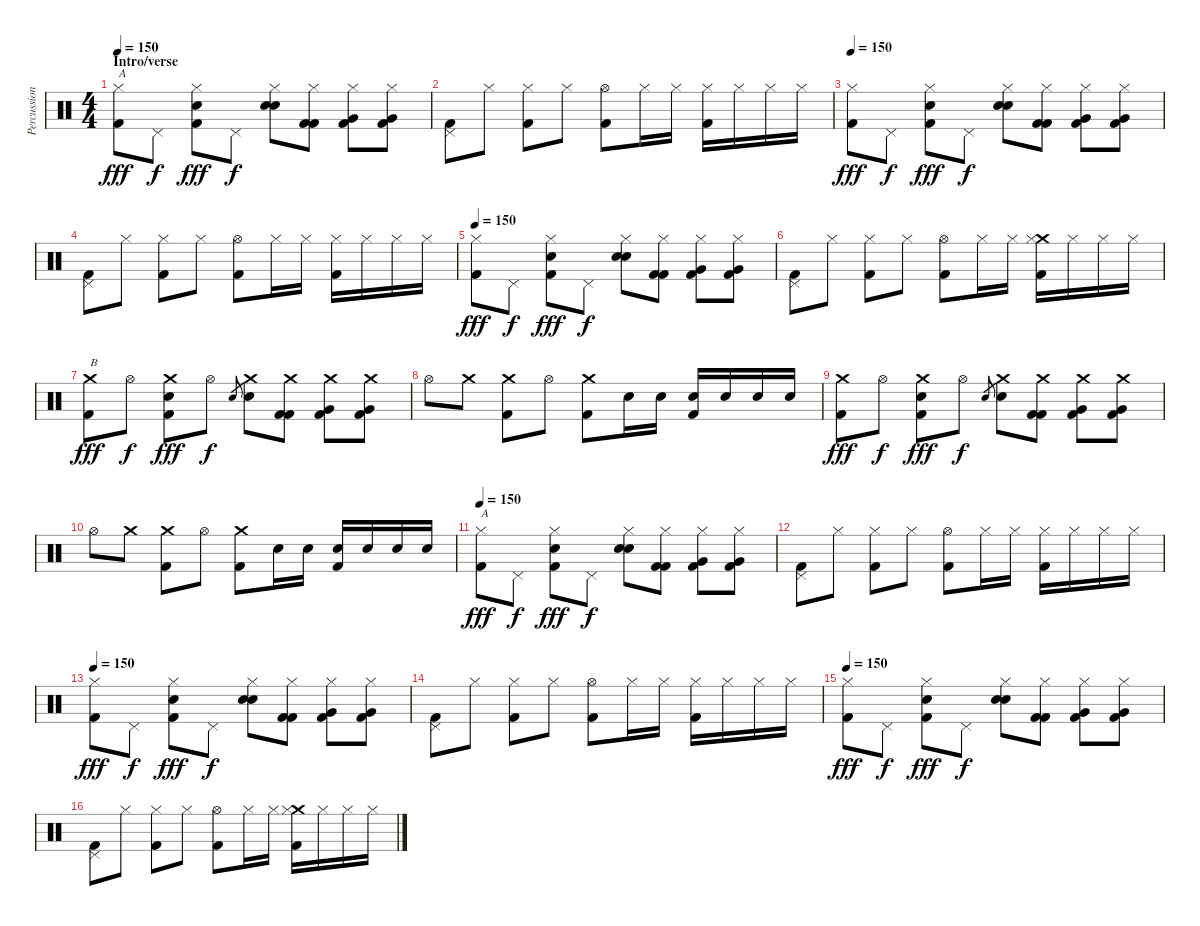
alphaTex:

\track ("Percussion" "Percussion") {instrument percussion}
\staff {score}
\articulation defaults
\ts (4 4)
\section ("" "Intro/verse")
\tempo 150
\clef neutral
\ks c
("Hi-Hat (closed)" "Kick (hit) 2").8{txt "A" dy fff} "Pedal Hi-Hat (hit)".8{dy f} ("Hi-Hat (closed)" "Electric Snare (hit)" "Kick (hit) 2").8{dy fff} "Pedal Hi-Hat (hit)".8{dy f} ("Hi-Hat (closed)" "Electric Snare (hit)" "Electric Snare (hit)").8{bd 240} ("Hi-Hat (closed)" "Kick (hit) 2" "Kick (hit) 2").8 ("Hi-Hat (closed)" "Very Low Tom (hit)" "Kick (hit) 2").8 ("Hi-Hat (closed)" "Very Low Tom (hit)" "Kick (hit) 2").8 |
("Pedal Hi-Hat (hit)" "Kick (hit) 2").8 "Hi-Hat (closed)".8 ("Hi-Hat (closed)" "Kick (hit) 2").8 "Hi-Hat (closed)".8 ("Hi-Hat (open)" "Kick (hit) 2").8 "Hi-Hat (closed)".16 "Hi-Hat (closed)".16 ("Hi-Hat (closed)" "Kick (hit) 2").16 "Hi-Hat (closed)".16 "Hi-Hat (closed)".16 "Hi-Hat (closed)".16 |
\tempo 150
("Hi-Hat (closed)" "Kick (hit) 2").8{dy fff} "Pedal Hi-Hat (hit)".8{dy f} ("Hi-Hat (closed)" "Electric Snare (hit)" "Kick (hit) 2").8{dy fff} "Pedal Hi-Hat (hit)".8{dy f} ("Hi-Hat (closed)" "Electric Snare (hit)" "Electric Snare (hit)").8{bd 240} ("Hi-Hat (closed)" "Kick (hit) 2" "Kick (hit) 2").8 ("Hi-Hat (closed)" "Very Low Tom (hit)" "Kick (hit) 2").8 ("Hi-Hat (closed)" "Very Low Tom (hit)" "Kick (hit) 2").8 |
("Pedal Hi-Hat (hit)" "Kick (hit) 2").8 "Hi-Hat (closed)".8 ("Hi-Hat (closed)" "Kick (hit) 2").8 "Hi-Hat (closed)".8 ("Hi-Hat (open)" "Kick (hit) 2").8 "Hi-Hat (closed)".16 "Hi-Hat (closed)".16 ("Hi-Hat (closed)" "Kick (hit) 2").16 "Hi-Hat (closed)".16 "Hi-Hat (closed)".16 "Hi-Hat (closed)".16 |
\tempo 150
("Hi-Hat (closed)" "Kick (hit) 2").8{dy fff} "Pedal Hi-Hat (hit)".8{dy f} ("Hi-Hat (closed)" "Electric Snare (hit)" "Kick (hit) 2").8{dy fff} "Pedal Hi-Hat (hit)".8{dy f} ("Hi-Hat (closed)" "Electric Snare (hit)" "Electric Snare (hit)").8{bd 240} ("Hi-Hat (closed)" "Kick (hit) 2" "Kick (hit) 2").8 ("Hi-Hat (closed)" "Very Low Tom (hit)" "Kick (hit) 2").8 ("Hi-Hat (closed)" "Very Low Tom (hit)" "Kick (hit) 2").8 |
("Pedal Hi-Hat (hit)" "Kick (hit) 2").8 "Hi-Hat (closed)".8 ("Hi-Hat (closed)" "Kick (hit) 2").8 "Hi-Hat (closed)".8 ("Hi-Hat (open)" "Kick (hit) 2").8 "Hi-Hat (closed)".16 "Hi-Hat (closed)".16 ("Crash medium (hit)" "Hi-Hat (closed)" "Kick (hit) 2").16 "Hi-Hat (closed)".16 "Hi-Hat (closed)".16 "Hi-Hat (closed)".16 |
("Crash medium (hit)" "Kick (hit) 2").8{txt "B" dy fff} "Hi-Hat (open)".8{dy f} ("Crash medium (hit)" "Electric Snare (hit)" "Kick (hit) 2").8{dy fff} "Hi-Hat (open)".8{dy f} "Snare (hit) 2".8{gr} ("Crash medium (hit)" "Snare (hit) 2").8 ("Crash medium (hit)" "Kick (hit) 2" "Kick (hit) 2").8 ("Crash medium (hit)" "Very Low Tom (hit)" "Kick (hit) 2").8 ("Crash medium (hit)" "Very Low Tom (hit)" "Kick (hit) 2").8 |
"Hi-Hat (open)".8 "Crash medium (hit)".8 ("Crash medium (hit)" "Kick (hit) 2").8 "Hi-Hat (open)".8 ("Crash medium (hit)" "Kick (hit) 2").8 "Snare (hit) 2".16 "Snare (hit) 2".16 ("Snare (hit) 2" "Kick (hit) 2").16 "Snare (hit) 2".16 "Snare (hit) 2".16 "Snare (hit) 2".16 |
("Crash medium (hit)" "Kick (hit) 2").8{dy fff} "Hi-Hat (open)".8{dy f} ("Crash medium (hit)" "Electric Snare (hit)" "Kick (hit) 2").8{dy fff} "Hi-Hat (open)".8{dy f} "Snare (hit) 2".8{gr} ("Crash medium (hit)" "Snare (hit) 2").8 ("Crash medium (hit)" "Kick (hit) 2" "Kick (hit) 2").8 ("Crash medium (hit)" "Very Low Tom (hit)" "Kick (hit) 2").8 ("Crash medium (hit)" "Very Low Tom (hit)" "Kick (hit) 2").8 |
"Hi-Hat (open)".8 "Crash medium (hit)".8 ("Crash medium (hit)" "Kick (hit) 2").8 "Hi-Hat (open)".8 ("Crash medium (hit)" "Kick (hit) 2").8 "Snare (hit) 2".16 "Snare (hit) 2".16 ("Snare (hit) 2" "Kick (hit) 2").16 "Snare (hit) 2".16 "Snare (hit) 2".16 "Snare (hit) 2".16 |
\tempo 150
("Hi-Hat (closed)" "Kick (hit) 2").8{txt "A" dy fff} "Pedal Hi-Hat (hit)".8{dy f} ("Hi-Hat (closed)" "Electric Snare (hit)" "Kick (hit) 2").8{dy fff} "Pedal Hi-Hat (hit)".8{dy f} ("Hi-Hat (closed)" "Electric Snare (hit)" "Electric Snare (hit)").8{bd 240} ("Hi-Hat (closed)" "Kick (hit) 2" "Kick (hit) 2").8 ("Hi-Hat (closed)" "Very Low Tom (hit)" "Kick (hit) 2").8 ("Hi-Hat (closed)" "Very Low Tom (hit)" "Kick (hit) 2").8 |
("Pedal Hi-Hat (hit)" "Kick (hit) 2").8 "Hi-Hat (closed)".8 ("Hi-Hat (closed)" "Kick (hit) 2").8 "Hi-Hat (closed)".8 ("Hi-Hat (open)" "Kick (hit) 2").8 "Hi-Hat (closed)".16 "Hi-Hat (closed)".16 ("Hi-Hat (closed)" "Kick (hit) 2").16 "Hi-Hat (closed)".16 "Hi-Hat (closed)".16 "Hi-Hat (closed)".16 |
\tempo 150
("Hi-Hat (closed)" "Kick (hit) 2").8{dy fff} "Pedal Hi-Hat (hit)".8{dy f} ("Hi-Hat (closed)" "Electric Snare (hit)" "Kick (hit) 2").8{dy fff} "Pedal Hi-Hat (hit)".8{dy f} ("Hi-Hat (closed)" "Electric Snare (hit)" "Electric Snare (hit)").8{bd 240} ("Hi-Hat (closed)" "Kick (hit) 2" "Kick (hit) 2").8 ("Hi-Hat (closed)" "Very Low Tom (hit)" "Kick (hit) 2").8 ("Hi-Hat (closed)" "Very Low Tom (hit)" "Kick (hit) 2").8 |
("Pedal Hi-Hat (hit)" "Kick (hit) 2").8 "Hi-Hat (closed)".8 ("Hi-Hat (closed)" "Kick (hit) 2").8 "Hi-Hat (closed)".8 ("Hi-Hat (open)" "Kick (hit) 2").8 "Hi-Hat (closed)".16 "Hi-Hat (closed)".16 ("Hi-Hat (closed)" "Kick (hit) 2").16 "Hi-Hat (closed)".16 "Hi-Hat (closed)".16 "Hi-Hat (closed)".16 |
\tempo 150
("Hi-Hat (closed)" "Kick (hit) 2").8{dy fff} "Pedal Hi-Hat (hit)".8{dy f} ("Hi-Hat (closed)" "Electric Snare (hit)" "Kick (hit) 2").8{dy fff} "Pedal Hi-Hat (hit)".8{dy f} ("Hi-Hat (closed)" "Electric Snare (hit)" "Electric Snare (hit)").8{bd 240} ("Hi-Hat (closed)" "Kick (hit) 2" "Kick (hit) 2").8 ("Hi-Hat (closed)" "Very Low Tom (hit)" "Kick (hit) 2").8 ("Hi-Hat (closed)" "Very Low Tom (hit)" "Kick (hit) 2").8 |
("Pedal Hi-Hat (hit)" "Kick (hit) 2").8 "Hi-Hat (closed)".8 ("Hi-Hat (closed)" "Kick (hit) 2").8 "Hi-Hat (closed)".8 ("Hi-Hat (open)" "Kick (hit) 2").8 "Hi-Hat (closed)".16 "Hi-Hat (closed)".16 ("Crash medium (hit)" "Hi-Hat (closed)" "Kick (hit) 2").16 "Hi-Hat (closed)".16 "Hi-Hat (closed)".16 "Hi-Hat (closed)".16
